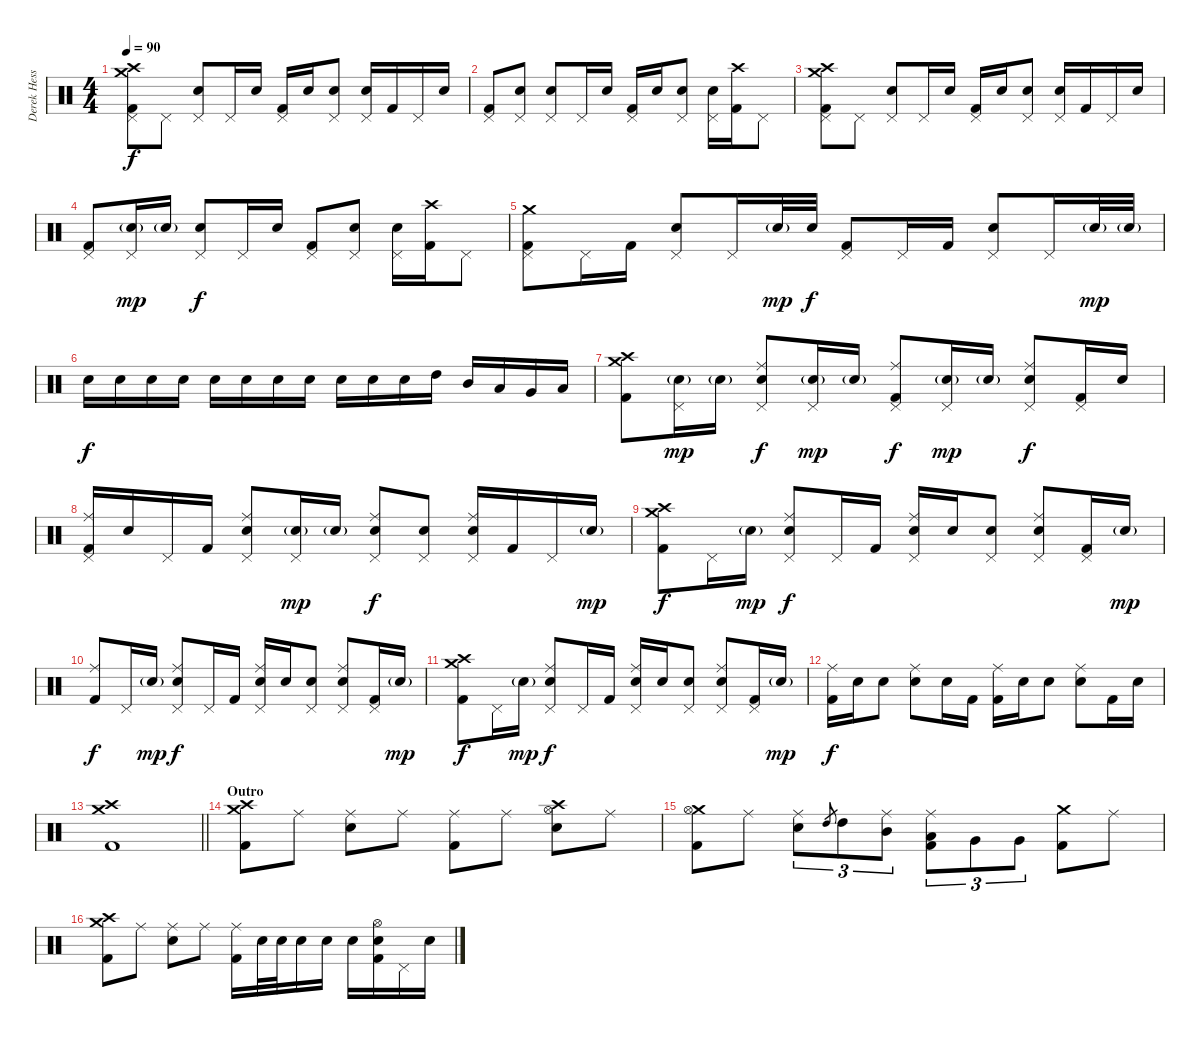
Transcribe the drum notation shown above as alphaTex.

\track ("Derek Hess (Drums and Percussion)" "Derek Hess") {instrument percussion}
\staff {score}
\articulation defaults
\ts (4 4)
\tempo 90
\clef neutral
\ks c
("Crash medium (hit)" "Crash high (hit)" "Pedal Hi-Hat (hit)" "Kick (hit) 2").8{dy f} "Pedal Hi-Hat (hit)".8 ("Snare (hit) 2" "Pedal Hi-Hat (hit)").8 "Pedal Hi-Hat (hit)".16 "Snare (hit) 2".16 ("Pedal Hi-Hat (hit)" "Kick (hit) 2").16 "Snare (hit) 2".16 ("Snare (hit) 2" "Pedal Hi-Hat (hit)").8 ("Snare (hit) 2" "Pedal Hi-Hat (hit)").16 "Kick (hit) 2".16 "Pedal Hi-Hat (hit)".16 "Snare (hit) 2".16 |
("Pedal Hi-Hat (hit)" "Kick (hit) 2").8 ("Snare (hit) 2" "Pedal Hi-Hat (hit)").8 ("Snare (hit) 2" "Pedal Hi-Hat (hit)").8 "Pedal Hi-Hat (hit)".16 "Snare (hit) 2".16 ("Pedal Hi-Hat (hit)" "Kick (hit) 2").16 "Snare (hit) 2".16 ("Snare (hit) 2" "Pedal Hi-Hat (hit)").8 ("Snare (hit) 2" "Pedal Hi-Hat (hit)").16 ("Crash high (hit)" "Kick (hit) 2").16 "Pedal Hi-Hat (hit)".8 |
("Crash medium (hit)" "Crash high (hit)" "Pedal Hi-Hat (hit)" "Kick (hit) 2").8 "Pedal Hi-Hat (hit)".8 ("Snare (hit) 2" "Pedal Hi-Hat (hit)").8 "Pedal Hi-Hat (hit)".16 "Snare (hit) 2".16 ("Pedal Hi-Hat (hit)" "Kick (hit) 2").16 "Snare (hit) 2".16 ("Snare (hit) 2" "Pedal Hi-Hat (hit)").8 ("Snare (hit) 2" "Pedal Hi-Hat (hit)").16 "Kick (hit) 2".16 "Pedal Hi-Hat (hit)".16 "Snare (hit) 2".16 |
("Pedal Hi-Hat (hit)" "Kick (hit) 2").8 ("Snare (hit) 2"{g} "Pedal Hi-Hat (hit)").16{dy mp} "Snare (hit) 2"{g}.16 ("Snare (hit) 2" "Pedal Hi-Hat (hit)").8{dy f} "Pedal Hi-Hat (hit)".16 "Snare (hit) 2".16 ("Pedal Hi-Hat (hit)" "Kick (hit) 2").8 ("Snare (hit) 2" "Pedal Hi-Hat (hit)").8 ("Snare (hit) 2" "Pedal Hi-Hat (hit)").16 ("Crash high (hit)" "Kick (hit) 2").16 "Pedal Hi-Hat (hit)".8 |
("Crash medium (hit)" "Pedal Hi-Hat (hit)" "Kick (hit) 2").8 "Pedal Hi-Hat (hit)".16 "Kick (hit) 2".16 ("Snare (hit) 2" "Pedal Hi-Hat (hit)").8 "Pedal Hi-Hat (hit)".16 "Snare (hit) 2"{g}.32{dy mp} "Snare (hit) 2".32{dy f} ("Pedal Hi-Hat (hit)" "Kick (hit) 2").8 "Pedal Hi-Hat (hit)".16 "Kick (hit) 2".16 ("Snare (hit) 2" "Pedal Hi-Hat (hit)").8 "Pedal Hi-Hat (hit)".16 "Snare (hit) 2"{g}.32{dy mp} "Snare (hit) 2"{g}.32 |
"Snare (hit) 2".16{dy f} "Snare (hit) 2".16 "Snare (hit) 2".16 "Snare (hit) 2".16 "Snare (hit) 2".16 "Snare (hit) 2".16 "Snare (hit) 2".16 "Snare (hit) 2".16 "Snare (hit) 2".16 "Snare (hit) 2".16 "Snare (hit) 2".16 "High Tom (hit)".16 "Mid Tom (hit)".16 "Low Tom (hit)".16 "Very Low Tom (hit)".16 "Low Floor Tom (hit)".16 |
("Crash medium (hit)" "Crash high (hit)" "Kick (hit) 2").8 ("Snare (hit) 2"{g} "Pedal Hi-Hat (hit)").16{dy mp} "Snare (hit) 2"{g}.16 ("Ride (middle)" "Snare (hit) 2" "Pedal Hi-Hat (hit)").8{dy f} ("Snare (hit) 2"{g} "Pedal Hi-Hat (hit)").16{dy mp} "Snare (hit) 2"{g}.16 ("Ride (middle)" "Pedal Hi-Hat (hit)" "Kick (hit) 2").8{dy f} ("Snare (hit) 2"{g} "Pedal Hi-Hat (hit)").16{dy mp} "Snare (hit) 2"{g}.16 ("Ride (middle)" "Snare (hit) 2" "Pedal Hi-Hat (hit)").8{dy f} ("Pedal Hi-Hat (hit)" "Kick (hit) 2").16 "Snare (hit) 2".16 |
("Ride (middle)" "Pedal Hi-Hat (hit)" "Kick (hit) 2").16 "Snare (hit) 2".16 "Pedal Hi-Hat (hit)".16 "Kick (hit) 2".16 ("Ride (middle)" "Snare (hit) 2" "Pedal Hi-Hat (hit)").8 ("Snare (hit) 2"{g} "Pedal Hi-Hat (hit)").16{dy mp} "Snare (hit) 2"{g}.16 ("Ride (middle)" "Snare (hit) 2" "Pedal Hi-Hat (hit)").8{dy f} ("Snare (hit) 2" "Pedal Hi-Hat (hit)").8 ("Ride (middle)" "Snare (hit) 2" "Pedal Hi-Hat (hit)").16 "Kick (hit) 2".16 "Pedal Hi-Hat (hit)".16 "Snare (hit) 2"{g}.16{dy mp} |
("Crash medium (hit)" "Crash high (hit)" "Kick (hit) 2").8{dy f} "Pedal Hi-Hat (hit)".16 "Snare (hit) 2"{g}.16{dy mp} ("Ride (middle)" "Snare (hit) 2" "Pedal Hi-Hat (hit)").8{dy f} "Pedal Hi-Hat (hit)".16 "Kick (hit) 2".16 ("Ride (middle)" "Snare (hit) 2" "Pedal Hi-Hat (hit)").16 "Snare (hit) 2".16 ("Snare (hit) 2" "Pedal Hi-Hat (hit)").8 ("Ride (middle)" "Snare (hit) 2" "Pedal Hi-Hat (hit)").8 ("Pedal Hi-Hat (hit)" "Kick (hit) 2").16 "Snare (hit) 2"{g}.16{dy mp} |
("Ride (middle)" "Kick (hit) 2").8{dy f} "Pedal Hi-Hat (hit)".16 "Snare (hit) 2"{g}.16{dy mp} ("Ride (middle)" "Snare (hit) 2" "Pedal Hi-Hat (hit)").8{dy f} "Pedal Hi-Hat (hit)".16 "Kick (hit) 2".16 ("Ride (middle)" "Snare (hit) 2" "Pedal Hi-Hat (hit)").16 "Snare (hit) 2".16 ("Snare (hit) 2" "Pedal Hi-Hat (hit)").8 ("Ride (middle)" "Snare (hit) 2" "Pedal Hi-Hat (hit)").8 ("Pedal Hi-Hat (hit)" "Kick (hit) 2").16 "Snare (hit) 2"{g}.16{dy mp} |
("Crash medium (hit)" "Crash high (hit)" "Kick (hit) 2").8{dy f} "Pedal Hi-Hat (hit)".16 "Snare (hit) 2"{g}.16{dy mp} ("Ride (middle)" "Snare (hit) 2" "Pedal Hi-Hat (hit)").8{dy f} "Pedal Hi-Hat (hit)".16 "Kick (hit) 2".16 ("Ride (middle)" "Snare (hit) 2" "Pedal Hi-Hat (hit)").16 "Snare (hit) 2".16 ("Snare (hit) 2" "Pedal Hi-Hat (hit)").8 ("Ride (middle)" "Snare (hit) 2" "Pedal Hi-Hat (hit)").8 ("Pedal Hi-Hat (hit)" "Kick (hit) 2").16 "Snare (hit) 2"{g}.16{dy mp} |
("Ride (middle)" "Kick (hit) 2").16{dy f} "Snare (hit) 2".16 "Snare (hit) 2".8 ("Ride (middle)" "Snare (hit) 2").8 "Snare (hit) 2".16 "Kick (hit) 2".16 ("Ride (middle)" "Kick (hit) 2").16 "Snare (hit) 2".16 "Snare (hit) 2".8 ("Ride (middle)" "Snare (hit) 2").8 "Kick (hit) 2".16 "Snare (hit) 2".16 |
\barLineRight lightlight
("Crash medium (hit)" "Crash high (hit)" "Kick (hit) 2").1 |
\section ("" "Outro")
("Crash high (hit)" "Crash medium (hit)" "Kick (hit) 2").8 "Ride (middle)".8 ("Ride (middle)" "Snare (hit) 2").8 "Ride (middle)".8 ("Ride (middle)" "Kick (hit) 2").8 "Ride (middle)".8 ("Crash high (hit)" "Snare (hit) 2" "Hi-Hat (open)").8 "Ride (middle)".8 |
("Crash medium (hit)" "Hi-Hat (open)" "Kick (hit) 2").8 "Ride (middle)".8 ("Ride (middle)" "Snare (hit) 2").8{tu (3 2)} "High Tom (hit)".8{gr} "High Tom (hit)".8{tu (3 2)} ("Ride (middle)" "Mid Tom (hit)").8{tu (3 2)} ("Ride (middle)" "Low Tom (hit)" "Kick (hit) 2").8{tu (3 2)} "Very Low Tom (hit)".8{tu (3 2)} "Very Low Tom (hit)".8{tu (3 2)} ("Crash medium (hit)" "Kick (hit) 2").8 "Ride (middle)".8 |
("Crash medium (hit)" "Crash high (hit)" "Kick (hit) 2").8 "Ride (middle)".8 ("Ride (middle)" "Snare (hit) 2").8 "Ride (middle)".8 ("Ride (middle)" "Kick (hit) 2").16 "Snare (hit) 2".32 "Snare (hit) 2".32 "Snare (hit) 2".16 "Snare (hit) 2".16 "Snare (hit) 2".16 ("Snare (hit) 2" "Hi-Hat (open)" "Kick (hit) 2").16 "Pedal Hi-Hat (hit)".16 "Snare (hit) 2".16
